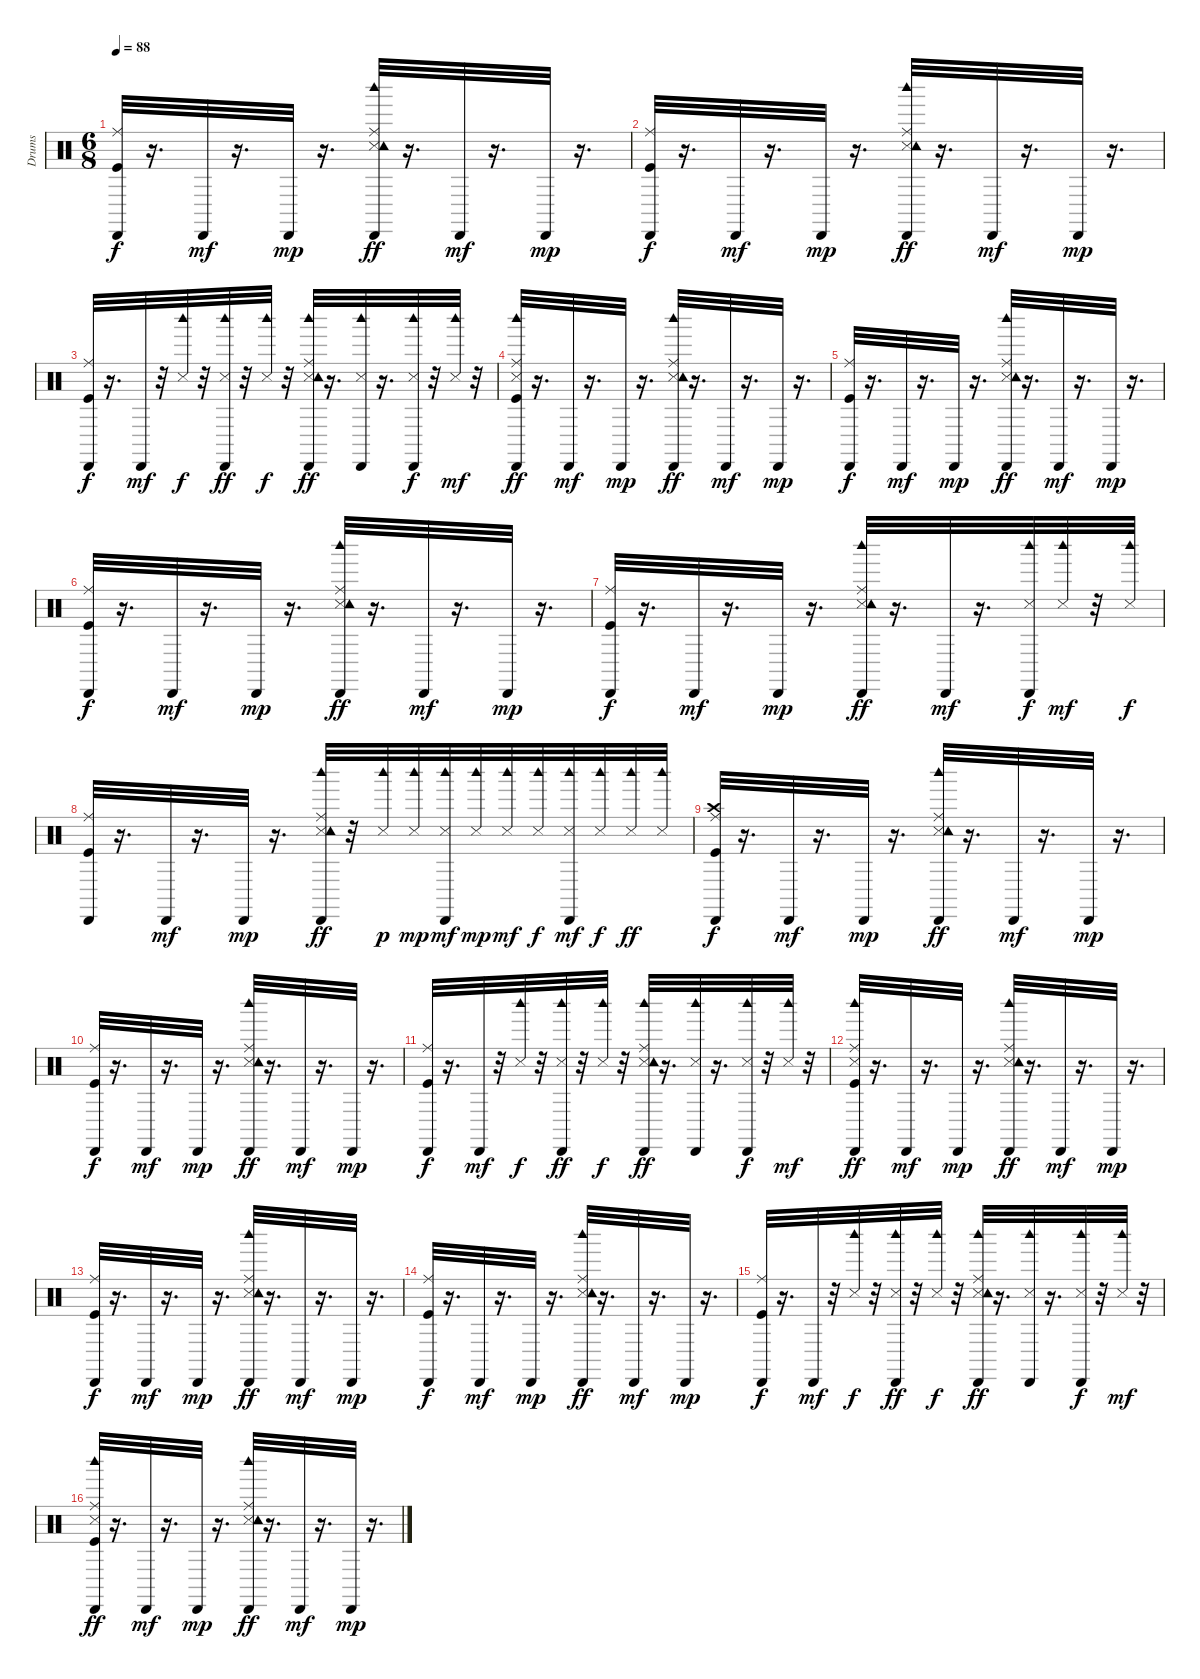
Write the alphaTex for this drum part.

\track ("Drums               " "Drums     ") {instrument percussion}
\staff {score}
\articulation defaults
\ts (6 8)
\tempo 88
\clef neutral
\ks c
("Kick (hit)" "Ride (middle)" "Cabasa (hit)").32{dy f} r.16{d} "Cabasa (hit)".32{dy mf} r.16{d} "Cabasa (hit)".32{dy mp} r.16{d} ("Snare (side stick) 3" "Ride (middle)" "Tambourine (hit)" "Cabasa (hit)" "Woodblock high (hit)").32{dy ff} r.16{d} "Cabasa (hit)".32{dy mf} r.16{d} "Cabasa (hit)".32{dy mp} r.16{d} |
("Kick (hit)" "Ride (middle)" "Cabasa (hit)").32{dy f} r.16{d} "Cabasa (hit)".32{dy mf} r.16{d} "Cabasa (hit)".32{dy mp} r.16{d} ("Snare (side stick) 3" "Ride (middle)" "Tambourine (hit)" "Cabasa (hit)" "Woodblock high (hit)").32{dy ff} r.16{d} "Cabasa (hit)".32{dy mf} r.16{d} "Cabasa (hit)".32{dy mp} r.16{d} |
("Kick (hit)" "Ride (middle)" "Cabasa (hit)").32{dy f} r.16{d} "Cabasa (hit)".32{dy mf} r.32 ("Snare (side stick) 3" "Woodblock high (hit)").32{dy f} r.32 ("Snare (side stick) 3" "Cabasa (hit)" "Woodblock high (hit)").32{dy ff} r.32 ("Snare (side stick) 3" "Woodblock high (hit)").32{dy f} r.32 ("Snare (side stick) 3" "Ride (middle)" "Tambourine (hit)" "Cabasa (hit)" "Woodblock high (hit)").32{dy ff} r.16{d} ("Snare (side stick) 3" "Cabasa (hit)" "Woodblock high (hit)").32 r.16{d} ("Snare (side stick) 3" "Cabasa (hit)" "Woodblock high (hit)").32{dy f} r.32 ("Snare (side stick) 3" "Woodblock high (hit)").32{dy mf} r.32 |
("Kick (hit)" "Snare (side stick) 3" "Ride (middle)" "Cabasa (hit)" "Woodblock high (hit)").32{dy ff} r.16{d} "Cabasa (hit)".32{dy mf} r.16{d} "Cabasa (hit)".32{dy mp} r.16{d} ("Snare (side stick) 3" "Ride (middle)" "Tambourine (hit)" "Cabasa (hit)" "Woodblock high (hit)").32{dy ff} r.16{d} "Cabasa (hit)".32{dy mf} r.16{d} "Cabasa (hit)".32{dy mp} r.16{d} |
("Kick (hit)" "Ride (middle)" "Cabasa (hit)").32{dy f} r.16{d} "Cabasa (hit)".32{dy mf} r.16{d} "Cabasa (hit)".32{dy mp} r.16{d} ("Snare (side stick) 3" "Ride (middle)" "Tambourine (hit)" "Cabasa (hit)" "Woodblock high (hit)").32{dy ff} r.16{d} "Cabasa (hit)".32{dy mf} r.16{d} "Cabasa (hit)".32{dy mp} r.16{d} |
("Kick (hit)" "Ride (middle)" "Cabasa (hit)").32{dy f} r.16{d} "Cabasa (hit)".32{dy mf} r.16{d} "Cabasa (hit)".32{dy mp} r.16{d} ("Snare (side stick) 3" "Ride (middle)" "Tambourine (hit)" "Cabasa (hit)" "Woodblock high (hit)").32{dy ff} r.16{d} "Cabasa (hit)".32{dy mf} r.16{d} "Cabasa (hit)".32{dy mp} r.16{d} |
("Kick (hit)" "Ride (middle)" "Cabasa (hit)").32{dy f} r.16{d} "Cabasa (hit)".32{dy mf} r.16{d} "Cabasa (hit)".32{dy mp} r.16{d} ("Snare (side stick) 3" "Ride (middle)" "Tambourine (hit)" "Cabasa (hit)" "Woodblock high (hit)").32{dy ff} r.16{d} "Cabasa (hit)".32{dy mf} r.16{d} ("Snare (side stick) 3" "Cabasa (hit)" "Woodblock high (hit)").32{dy f} ("Snare (side stick) 3" "Woodblock high (hit)").32{dy mf} r.32 ("Snare (side stick) 3" "Woodblock high (hit)").32{dy f} |
("Kick (hit)" "Ride (middle)" "Cabasa (hit)").32 r.16{d} "Cabasa (hit)".32{dy mf} r.16{d} "Cabasa (hit)".32{dy mp} r.16{d} ("Snare (side stick) 3" "Ride (middle)" "Tambourine (hit)" "Cabasa (hit)" "Woodblock high (hit)").32{dy ff} r.32 ("Snare (side stick) 3" "Woodblock high (hit)").32{dy p} ("Snare (side stick) 3" "Woodblock high (hit)").32{dy mp} ("Snare (side stick) 3" "Cabasa (hit)" "Woodblock high (hit)").32{dy mf} ("Snare (side stick) 3" "Woodblock high (hit)").32{dy mp} ("Snare (side stick) 3" "Woodblock high (hit)").32{dy mf} ("Snare (side stick) 3" "Woodblock high (hit)").32{dy f} ("Snare (side stick) 3" "Cabasa (hit)" "Woodblock high (hit)").32{dy mf} ("Snare (side stick) 3" "Woodblock high (hit)").32{dy f} ("Snare (side stick) 3" "Woodblock high (hit)").32{dy ff} ("Snare (side stick) 3" "Woodblock high (hit)").32 |
("Kick (hit)" "Ride (middle)" "Cabasa (hit)" "Crash high (hit)").32{dy f} r.16{d} "Cabasa (hit)".32{dy mf} r.16{d} "Cabasa (hit)".32{dy mp} r.16{d} ("Snare (side stick) 3" "Ride (middle)" "Tambourine (hit)" "Cabasa (hit)" "Woodblock high (hit)").32{dy ff} r.16{d} "Cabasa (hit)".32{dy mf} r.16{d} "Cabasa (hit)".32{dy mp} r.16{d} |
("Kick (hit)" "Ride (middle)" "Cabasa (hit)").32{dy f} r.16{d} "Cabasa (hit)".32{dy mf} r.16{d} "Cabasa (hit)".32{dy mp} r.16{d} ("Snare (side stick) 3" "Ride (middle)" "Tambourine (hit)" "Cabasa (hit)" "Woodblock high (hit)").32{dy ff} r.16{d} "Cabasa (hit)".32{dy mf} r.16{d} "Cabasa (hit)".32{dy mp} r.16{d} |
("Kick (hit)" "Ride (middle)" "Cabasa (hit)").32{dy f} r.16{d} "Cabasa (hit)".32{dy mf} r.32 ("Snare (side stick) 3" "Woodblock high (hit)").32{dy f} r.32 ("Snare (side stick) 3" "Cabasa (hit)" "Woodblock high (hit)").32{dy ff} r.32 ("Snare (side stick) 3" "Woodblock high (hit)").32{dy f} r.32 ("Snare (side stick) 3" "Ride (middle)" "Tambourine (hit)" "Cabasa (hit)" "Woodblock high (hit)").32{dy ff} r.16{d} ("Snare (side stick) 3" "Cabasa (hit)" "Woodblock high (hit)").32 r.16{d} ("Snare (side stick) 3" "Cabasa (hit)" "Woodblock high (hit)").32{dy f} r.32 ("Snare (side stick) 3" "Woodblock high (hit)").32{dy mf} r.32 |
("Kick (hit)" "Snare (side stick) 3" "Ride (middle)" "Cabasa (hit)" "Woodblock high (hit)").32{dy ff} r.16{d} "Cabasa (hit)".32{dy mf} r.16{d} "Cabasa (hit)".32{dy mp} r.16{d} ("Snare (side stick) 3" "Ride (middle)" "Tambourine (hit)" "Cabasa (hit)" "Woodblock high (hit)").32{dy ff} r.16{d} "Cabasa (hit)".32{dy mf} r.16{d} "Cabasa (hit)".32{dy mp} r.16{d} |
("Kick (hit)" "Ride (middle)" "Cabasa (hit)").32{dy f} r.16{d} "Cabasa (hit)".32{dy mf} r.16{d} "Cabasa (hit)".32{dy mp} r.16{d} ("Snare (side stick) 3" "Ride (middle)" "Tambourine (hit)" "Cabasa (hit)" "Woodblock high (hit)").32{dy ff} r.16{d} "Cabasa (hit)".32{dy mf} r.16{d} "Cabasa (hit)".32{dy mp} r.16{d} |
("Kick (hit)" "Ride (middle)" "Cabasa (hit)").32{dy f} r.16{d} "Cabasa (hit)".32{dy mf} r.16{d} "Cabasa (hit)".32{dy mp} r.16{d} ("Snare (side stick) 3" "Ride (middle)" "Tambourine (hit)" "Cabasa (hit)" "Woodblock high (hit)").32{dy ff} r.16{d} "Cabasa (hit)".32{dy mf} r.16{d} "Cabasa (hit)".32{dy mp} r.16{d} |
("Kick (hit)" "Ride (middle)" "Cabasa (hit)").32{dy f} r.16{d} "Cabasa (hit)".32{dy mf} r.32 ("Snare (side stick) 3" "Woodblock high (hit)").32{dy f} r.32 ("Snare (side stick) 3" "Cabasa (hit)" "Woodblock high (hit)").32{dy ff} r.32 ("Snare (side stick) 3" "Woodblock high (hit)").32{dy f} r.32 ("Snare (side stick) 3" "Ride (middle)" "Tambourine (hit)" "Cabasa (hit)" "Woodblock high (hit)").32{dy ff} r.16{d} ("Snare (side stick) 3" "Cabasa (hit)" "Woodblock high (hit)").32 r.16{d} ("Snare (side stick) 3" "Cabasa (hit)" "Woodblock high (hit)").32{dy f} r.32 ("Snare (side stick) 3" "Woodblock high (hit)").32{dy mf} r.32 |
("Kick (hit)" "Snare (side stick) 3" "Ride (middle)" "Cabasa (hit)" "Woodblock high (hit)").32{dy ff} r.16{d} "Cabasa (hit)".32{dy mf} r.16{d} "Cabasa (hit)".32{dy mp} r.16{d} ("Snare (side stick) 3" "Ride (middle)" "Tambourine (hit)" "Cabasa (hit)" "Woodblock high (hit)").32{dy ff} r.16{d} "Cabasa (hit)".32{dy mf} r.16{d} "Cabasa (hit)".32{dy mp} r.16{d}
